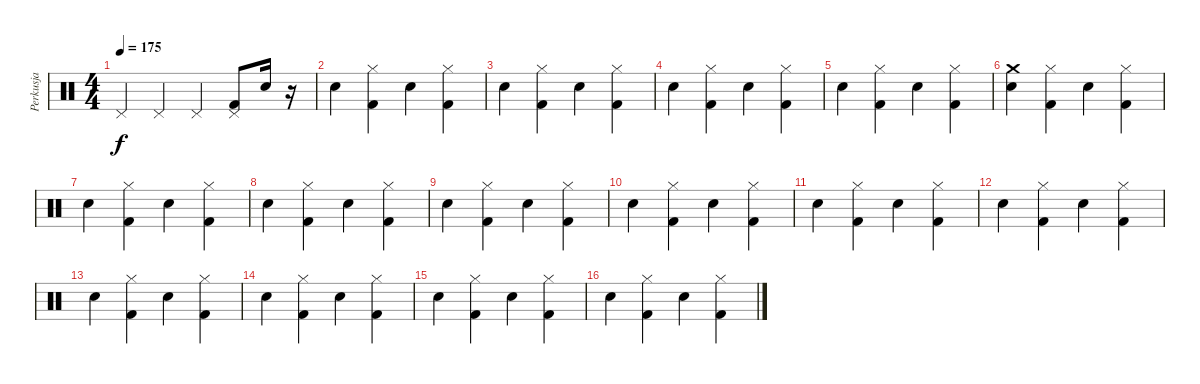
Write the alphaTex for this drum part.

\track ("Perkusja" "Perkusja") {instrument percussion}
\staff {score}
\articulation defaults
\ts (4 4)
\tempo 175
\clef neutral
\ks c "Pedal Hi-Hat (hit)".4{dy f} "Pedal Hi-Hat (hit)".4 "Pedal Hi-Hat (hit)".4
("Pedal Hi-Hat (hit)" "Kick (hit) 2").8 "Snare (hit) 2".16 r.16 |
"Snare (hit) 2".4 ("Kick (hit) 2" "Hi-Hat (closed)").4 "Snare (hit) 2".4 ("Kick (hit) 2" "Hi-Hat (closed)").4 |
"Snare (hit) 2".4 ("Kick (hit) 2" "Hi-Hat (closed)").4 "Snare (hit) 2".4 ("Kick (hit) 2" "Hi-Hat (closed)").4 |
"Snare (hit) 2".4 ("Kick (hit) 2" "Hi-Hat (closed)").4 "Snare (hit) 2".4 ("Kick (hit) 2" "Hi-Hat (closed)").4 |
"Snare (hit) 2".4 ("Kick (hit) 2" "Hi-Hat (closed)").4 "Snare (hit) 2".4 ("Kick (hit) 2" "Hi-Hat (closed)").4 |
("Snare (hit) 2" "Crash medium (hit)").4 ("Kick (hit) 2" "Hi-Hat (closed)").4 "Snare (hit) 2".4 ("Kick (hit) 2" "Hi-Hat (closed)").4 |
"Snare (hit) 2".4 ("Kick (hit) 2" "Hi-Hat (closed)").4 "Snare (hit) 2".4 ("Kick (hit) 2" "Hi-Hat (closed)").4 |
"Snare (hit) 2".4 ("Kick (hit) 2" "Hi-Hat (closed)").4 "Snare (hit) 2".4 ("Kick (hit) 2" "Hi-Hat (closed)").4 |
"Snare (hit) 2".4 ("Kick (hit) 2" "Hi-Hat (closed)").4 "Snare (hit) 2".4 ("Kick (hit) 2" "Hi-Hat (closed)").4 |
"Snare (hit) 2".4 ("Kick (hit) 2" "Hi-Hat (closed)").4 "Snare (hit) 2".4 ("Kick (hit) 2" "Hi-Hat (closed)").4 |
"Snare (hit) 2".4 ("Kick (hit) 2" "Hi-Hat (closed)").4 "Snare (hit) 2".4 ("Kick (hit) 2" "Hi-Hat (closed)").4 |
"Snare (hit) 2".4 ("Kick (hit) 2" "Hi-Hat (closed)").4 "Snare (hit) 2".4 ("Kick (hit) 2" "Hi-Hat (closed)").4 |
"Snare (hit) 2".4 ("Kick (hit) 2" "Hi-Hat (closed)").4 "Snare (hit) 2".4 ("Kick (hit) 2" "Hi-Hat (closed)").4 |
"Snare (hit) 2".4 ("Kick (hit) 2" "Hi-Hat (closed)").4 "Snare (hit) 2".4 ("Kick (hit) 2" "Hi-Hat (closed)").4 |
"Snare (hit) 2".4 ("Kick (hit) 2" "Hi-Hat (closed)").4 "Snare (hit) 2".4 ("Kick (hit) 2" "Hi-Hat (closed)").4 |
"Snare (hit) 2".4 ("Kick (hit) 2" "Hi-Hat (closed)").4 "Snare (hit) 2".4 ("Kick (hit) 2" "Hi-Hat (closed)").4
